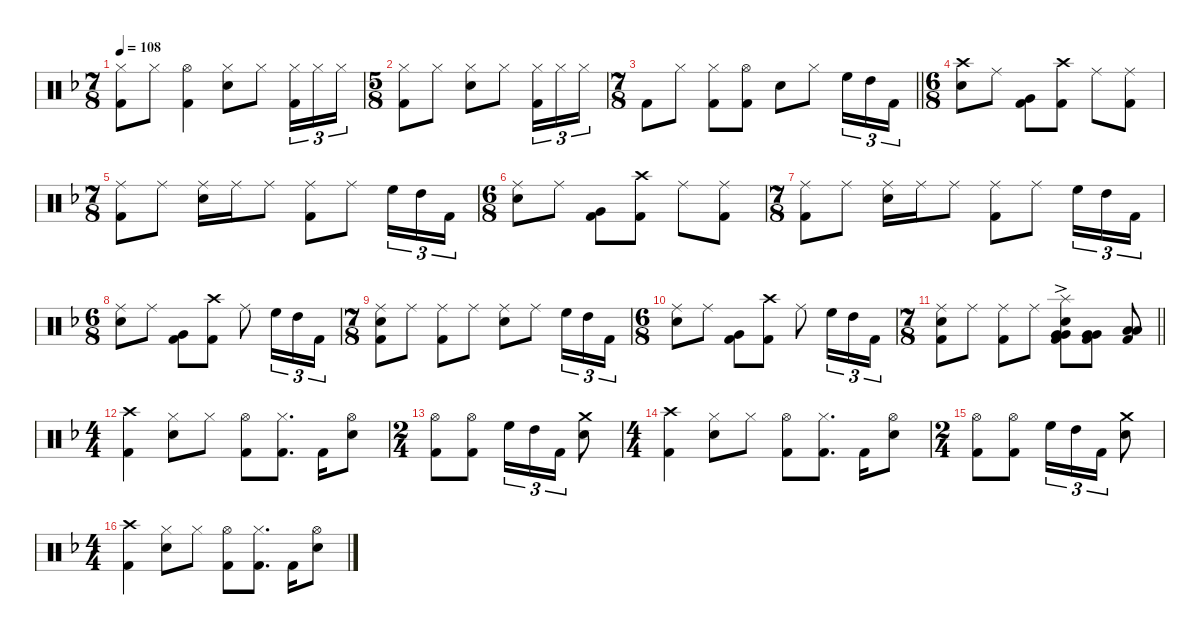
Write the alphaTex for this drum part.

\defaultSystemsLayout 4
\hideDynamics
\bracketExtendMode nobrackets
\singleTrackTrackNamePolicy hidden
\multiTrackTrackNamePolicy hidden
\firstSystemTrackNameMode fullname
\firstSystemTrackNameOrientation horizontal
\otherSystemsTrackNameOrientation horizontal
\track ("Danny Carey" "drm.") {defaultSystemsLayout 4 instrument percussion}
\staff {score}
\articulation defaults
\ts (7 8)
\beaming (8 2 2 2 2)
\tempo 108
\clef neutral
\ks dminor
("Hi-Hat (closed)"{acc forcenatural} "Kick (hit) 2"{acc forcenatural}).8{dy f beam Down} "Hi-Hat (closed)"{acc forcenatural}.8{beam Down} ("Hi-Hat (open)"{acc forcenatural} "Kick (hit) 2"{acc forcenatural}).4{beam Down} ("Hi-Hat (closed)"{acc forcenatural} "Snare (hit) 2"{acc forcenatural}).8{beam Down} "Hi-Hat (closed)"{acc forcenatural}.8{beam Down} ("Hi-Hat (closed)"{acc forcenatural} "Kick (hit) 2"{acc forcenatural}).16{tu (3 2) beam Down} "Hi-Hat (closed)"{acc forcenatural}.16{tu (3 2) beam Down} "Hi-Hat (closed)"{acc forcenatural}.16{tu (3 2) beam Down} |
\ts (5 8)
\beaming (8 2 2 2 2)
("Hi-Hat (closed)"{acc forcenatural} "Kick (hit) 2"{acc forcenatural}).8{beam Down} "Hi-Hat (closed)"{acc forcenatural}.8{beam Down} ("Hi-Hat (closed)"{acc forcenatural} "Snare (hit) 2"{acc forcenatural}).8{beam Down} "Hi-Hat (closed)"{acc forcenatural}.8{beam Down} ("Hi-Hat (closed)"{acc forcenatural} "Kick (hit) 2"{acc forcenatural}).16{tu (3 2) beam Down} "Hi-Hat (closed)"{acc forcenatural}.16{tu (3 2) beam Down} "Hi-Hat (closed)"{acc forcenatural}.16{tu (3 2) beam Down} |
\ts (7 8)
\beaming (8 2 2 2 2)
\barLineRight lightlight "Kick (hit) 2"{acc forcenatural}.8{beam Down} "Hi-Hat (closed)"{acc forcenatural}.8{beam Down}
("Hi-Hat (closed)"{acc forcenatural} "Kick (hit) 2"{acc forcenatural}).8{beam Down} ("Hi-Hat (open)"{acc forcenatural} "Kick (hit) 2"{acc forcenatural}).8{beam Down} "Snare (hit) 2"{acc forcenatural}.8{beam Down} "Hi-Hat (closed)"{acc forcenatural}.8{beam Down} "High Floor Tom (hit)"{acc forcenatural}.16{tu (3 2) beam Down} "High Tom (hit)"{acc forcenatural}.16{tu (3 2) beam Down} "Kick (hit) 2"{acc forcenatural}.16{tu (3 2) beam Down} |
\ts (6 8)
\beaming (8 2 2 2 2)
("Crash high (hit)"{acc forcenatural} "Snare (hit) 2"{acc forcenatural}).8{beam Down} "Ride (middle)"{acc forcenatural}.8{beam Down} ("Very Low Tom (hit)"{acc forcenatural} "Kick (hit) 2"{acc forcenatural}).8{beam Down} ("Crash high (hit)"{acc forcenatural} "Kick (hit) 2"{acc forcenatural}).8{beam Down} "Ride (middle)"{acc forcenatural}.8{beam Down} ("Ride (middle)"{acc forcenatural} "Kick (hit) 2"{acc forcenatural}).8{beam Down} |
\ts (7 8)
\beaming (8 2 2 2 2)
("Ride (middle)"{acc forcenatural} "Kick (hit) 2"{acc forcenatural}).8{beam Down} "Ride (middle)"{acc forcenatural}.8{beam Down} ("Ride (middle)"{acc forcenatural} "Snare (hit) 2"{acc forcenatural}).16{beam Down} "Ride (middle)"{acc forcenatural}.16{beam Down} "Ride (middle)"{acc forcenatural}.8{beam Down} ("Ride (middle)"{acc forcenatural} "Kick (hit) 2"{acc forcenatural}).8{beam Down} "Ride (middle)"{acc forcenatural}.8{beam Down} "High Floor Tom (hit)"{acc forcenatural}.16{tu (3 2) beam Down} "High Tom (hit)"{acc forcenatural}.16{tu (3 2) beam Down} "Kick (hit) 2"{acc forcenatural}.16{tu (3 2) beam Down} |
\ts (6 8)
\beaming (8 2 2 2 2)
("Ride (middle)"{acc forcenatural} "Snare (hit) 2"{acc forcenatural}).8{beam Down} "Ride (middle)"{acc forcenatural}.8{beam Down} ("Very Low Tom (hit)"{acc forcenatural} "Kick (hit) 2"{acc forcenatural}).8{beam Down} ("Crash high (hit)"{acc forcenatural} "Kick (hit) 2"{acc forcenatural}).8{beam Down} "Ride (middle)"{acc forcenatural}.8{beam Down} ("Ride (middle)"{acc forcenatural} "Kick (hit) 2"{acc forcenatural}).8{beam Down} |
\ts (7 8)
\beaming (8 2 2 2 2)
("Ride (middle)"{acc forcenatural} "Kick (hit) 2"{acc forcenatural}).8{beam Down} "Ride (middle)"{acc forcenatural}.8{beam Down} ("Ride (middle)"{acc forcenatural} "Snare (hit) 2"{acc forcenatural}).16{beam Down} "Ride (middle)"{acc forcenatural}.16{beam Down} "Ride (middle)"{acc forcenatural}.8{beam Down} ("Ride (middle)"{acc forcenatural} "Kick (hit) 2"{acc forcenatural}).8{beam Down} "Ride (middle)"{acc forcenatural}.8{beam Down} "High Floor Tom (hit)"{acc forcenatural}.16{tu (3 2) beam Down} "High Tom (hit)"{acc forcenatural}.16{tu (3 2) beam Down} "Kick (hit) 2"{acc forcenatural}.16{tu (3 2) beam Down} |
\ts (6 8)
\beaming (8 2 2 2 2)
("Ride (middle)"{acc forcenatural} "Snare (hit) 2"{acc forcenatural}).8{beam Down} "Ride (middle)"{acc forcenatural}.8{beam Down} ("Very Low Tom (hit)"{acc forcenatural} "Kick (hit) 2"{acc forcenatural}).8{beam Down} ("Crash high (hit)"{acc forcenatural} "Kick (hit) 2"{acc forcenatural}).8{beam Down} "Ride (middle)"{acc forcenatural}.8{beam Down} "High Floor Tom (hit)"{acc forcenatural}.16{tu (3 2) beam Down} "High Tom (hit)"{acc forcenatural}.16{tu (3 2) beam Down} "Kick (hit) 2"{acc forcenatural}.16{tu (3 2) beam Down} |
\ts (7 8)
\beaming (8 2 2 2 2)
("Ride (middle)"{acc forcenatural} "Snare (hit) 2"{acc forcenatural} "Kick (hit) 2"{acc forcenatural}).8{beam Down} "Ride (middle)"{acc forcenatural}.8{beam Down} ("Ride (middle)"{acc forcenatural} "Kick (hit) 2"{acc forcenatural}).8{beam Down} "Ride (middle)"{acc forcenatural}.8{beam Down} ("Ride (middle)"{acc forcenatural} "Snare (hit) 2"{acc forcenatural}).8{beam Down} "Ride (middle)"{acc forcenatural}.8{beam Down} "High Floor Tom (hit)"{acc forcenatural}.16{tu (3 2) beam Down} "High Tom (hit)"{acc forcenatural}.16{tu (3 2) beam Down} "Kick (hit) 2"{acc forcenatural}.16{tu (3 2) beam Down} |
\ts (6 8)
\beaming (8 2 2 2 2)
("Ride (middle)"{acc forcenatural} "Snare (hit) 2"{acc forcenatural}).8{beam Down} "Ride (middle)"{acc forcenatural}.8{beam Down} ("Very Low Tom (hit)"{acc forcenatural} "Kick (hit) 2"{acc forcenatural}).8{beam Down} ("Crash high (hit)"{acc forcenatural} "Kick (hit) 2"{acc forcenatural}).8{beam Down} "Ride (middle)"{acc forcenatural}.8{beam Down} "High Floor Tom (hit)"{acc forcenatural}.16{tu (3 2) beam Down} "High Tom (hit)"{acc forcenatural}.16{tu (3 2) beam Down} "Kick (hit) 2"{acc forcenatural}.16{tu (3 2) beam Down} |
\ts (7 8)
\beaming (8 2 2 2 2)
\barLineRight lightlight
("Ride (middle)"{acc forcenatural} "Snare (hit) 2"{acc forcenatural} "Kick (hit) 2"{acc forcenatural}).8{beam Down} "Ride (middle)"{acc forcenatural}.8{beam Down} ("Ride (middle)"{acc forcenatural} "Kick (hit) 2"{acc forcenatural}).8{beam Down} "Ride (middle)"{acc forcenatural}.8{beam Down} ("Splash (hit)"{acc forcenatural} "Very Low Tom (hit)"{acc forcenatural} "Very Low Tom (hit)"{acc forcenatural} "Snare (hit) 2"{acc forcenatural} "Kick (hit) 2"{ac acc forcenatural}).8{beam Down} ("Very Low Tom (hit)"{acc forcenatural} "Very Low Tom (hit)"{acc forcenatural} "Kick (hit) 2"{acc forcenatural}).8{beam Down} ("Low Floor Tom (hit)"{acc forcenatural} "Low Floor Tom (hit)"{acc forcenatural} "Kick (hit) 2"{acc forcenatural}).8{beam Up} |
\ts (4 4)
\beaming (8 2 2 2 2)
("Crash high (hit)"{acc forcenatural} "Kick (hit) 2"{acc forcenatural}).4{beam Down} ("Hi-Hat (closed)"{acc forcenatural} "Snare (hit) 2"{acc forcenatural}).8{beam Down} "Hi-Hat (closed)"{acc forcenatural}.8{beam Down} ("Hi-Hat (open)"{acc forcenatural} "Kick (hit) 2"{acc forcenatural}).8{beam Down} ("Hi-Hat (closed)"{acc forcenatural} "Kick (hit) 2"{acc forcenatural}).8{d beam Down} "Kick (hit) 2"{acc forcenatural}.16{beam Down} ("Hi-Hat (open)"{acc forcenatural} "Snare (hit) 2"{acc forcenatural}).8{beam Down} |
\ts (2 4)
\beaming (8 2 2 2 2)
("Hi-Hat (open)"{acc forcenatural} "Kick (hit) 2"{acc forcenatural}).8{beam Down} ("Hi-Hat (open)"{acc forcenatural} "Kick (hit) 2"{acc forcenatural}).8{beam Down} "High Floor Tom (hit)"{acc forcenatural}.16{tu (3 2) beam Down} "High Tom (hit)"{acc forcenatural}.16{tu (3 2) beam Down} "Kick (hit) 2"{acc forcenatural}.16{tu (3 2) beam Down} ("Crash medium (hit)"{acc forcenatural} "Snare (hit) 2"{acc forcenatural}).8{beam Down} |
\ts (4 4)
\beaming (8 2 2 2 2)
("Crash high (hit)"{acc forcenatural} "Kick (hit) 2"{acc forcenatural}).4{beam Down} ("Hi-Hat (closed)"{acc forcenatural} "Snare (hit) 2"{acc forcenatural}).8{beam Down} "Hi-Hat (closed)"{acc forcenatural}.8{beam Down} ("Hi-Hat (open)"{acc forcenatural} "Kick (hit) 2"{acc forcenatural}).8{beam Down} ("Hi-Hat (closed)"{acc forcenatural} "Kick (hit) 2"{acc forcenatural}).8{d beam Down} "Kick (hit) 2"{acc forcenatural}.16{beam Down} ("Hi-Hat (open)"{acc forcenatural} "Snare (hit) 2"{acc forcenatural}).8{beam Down} |
\ts (2 4)
\beaming (8 2 2 2 2)
("Hi-Hat (open)"{acc forcenatural} "Kick (hit) 2"{acc forcenatural}).8{beam Down} ("Hi-Hat (open)"{acc forcenatural} "Kick (hit) 2"{acc forcenatural}).8{beam Down} "High Floor Tom (hit)"{acc forcenatural}.16{tu (3 2) beam Down} "High Tom (hit)"{acc forcenatural}.16{tu (3 2) beam Down} "Kick (hit) 2"{acc forcenatural}.16{tu (3 2) beam Down} ("Crash medium (hit)"{acc forcenatural} "Snare (hit) 2"{acc forcenatural}).8{beam Down} |
\ts (4 4)
\beaming (8 2 2 2 2)
("Crash high (hit)"{acc forcenatural} "Kick (hit) 2"{acc forcenatural}).4{beam Down} ("Hi-Hat (closed)"{acc forcenatural} "Snare (hit) 2"{acc forcenatural}).8{beam Down} "Hi-Hat (closed)"{acc forcenatural}.8{beam Down} ("Hi-Hat (open)"{acc forcenatural} "Kick (hit) 2"{acc forcenatural}).8{beam Down} ("Hi-Hat (closed)"{acc forcenatural} "Kick (hit) 2"{acc forcenatural}).8{d beam Down} "Kick (hit) 2"{acc forcenatural}.16{beam Down} ("Hi-Hat (open)"{acc forcenatural} "Snare (hit) 2"{acc forcenatural}).8{beam Down}
